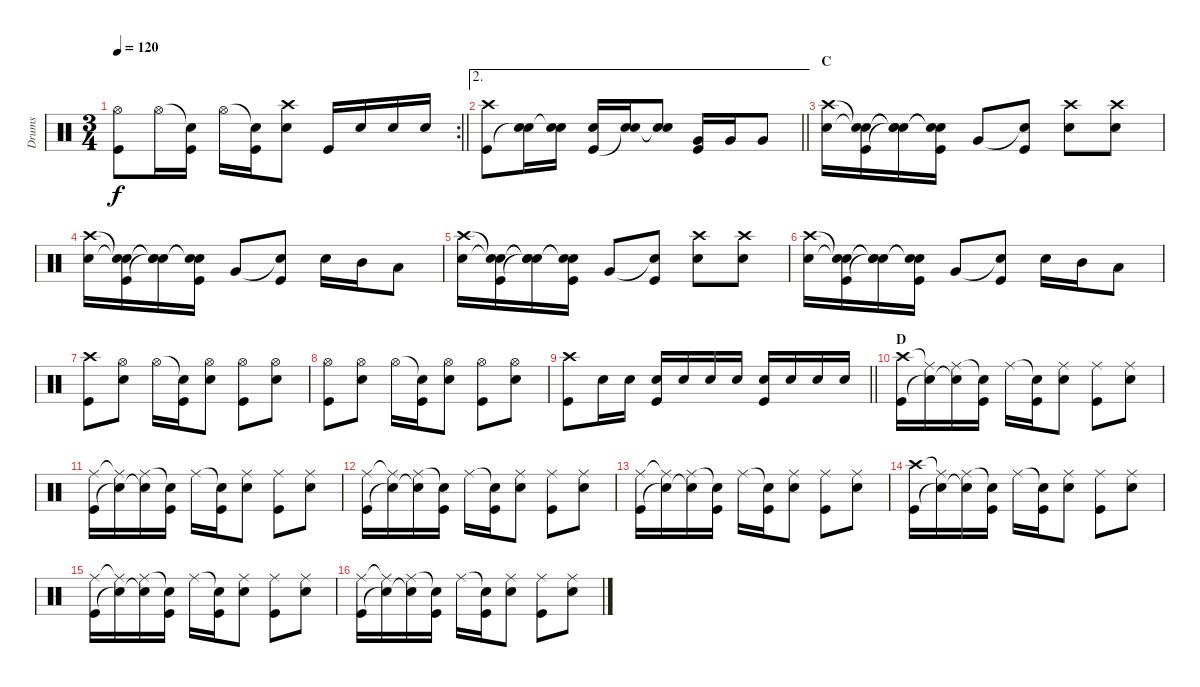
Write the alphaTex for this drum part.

\track ("Drums" "Drums") {instrument percussion}
\staff {score}
\articulation defaults
\rc 2
\ts (3 4)
\tempo 120
\clef neutral
\barLineRight lightlight
\ks c
("Hi-Hat (open)" "Kick (hit)").8{dy f} "Hi-Hat (open)".16 ("Snare (hit)"{t} "Kick (hit)").16 "Hi-Hat (open)".16 ("Snare (hit)"{t} "Kick (hit)").16 ("Crash high (hit)" "Snare (hit) 2").8 "Kick (hit)".16 "Snare (hit) 2".16 "Snare (hit) 2".16 "Snare (hit) 2".16 |
\ae 2
\barLineRight lightlight
("Crash high (hit)" "Kick (hit)").8 ("Snare (hit) 2" "Snare (hit)"{t}).16 ("Snare (hit) 2" "Snare (hit)"{t}).16 ("Snare (hit) 2" "Kick (hit)").16 ("Snare (hit) 2" "Snare (hit)"{t}).16 ("Snare (hit) 2" "Snare (hit)"{t}).8 ("Very Low Tom (hit)" "Kick (hit)").16 "Very Low Tom (hit)".16 "Very Low Tom (hit)".8 |
\section ("" "C")
("Crash high (hit)" "Snare (hit) 2").16 ("Snare (hit)"{t} "Snare (hit)"{t} "Kick (hit)").16 ("Snare (hit)"{t} "Snare (hit)"{t} "Snare (hit)"{t}).16 ("Snare (hit)"{t} "Snare (hit)"{t} "Kick (hit)").16 "Very Low Tom (hit)".8 ("Snare (hit)"{t} "Kick (hit)").8 ("Crash high (hit)" "Snare (hit) 2").8 ("Crash high (hit)" "Snare (hit) 2").8 |
("Crash high (hit)" "Snare (hit) 2").16 ("Snare (hit)"{t} "Snare (hit)"{t} "Kick (hit)").16 ("Snare (hit)"{t} "Snare (hit)"{t} "Snare (hit)"{t}).16 ("Snare (hit)"{t} "Snare (hit)"{t} "Kick (hit)").16 "Very Low Tom (hit)".8 ("Snare (hit)"{t} "Kick (hit)").8 "Snare (hit) 2".16 "Mid Tom (hit)".16 "Low Tom (hit)".8 |
("Crash high (hit)" "Snare (hit) 2").16 ("Snare (hit)"{t} "Snare (hit)"{t} "Kick (hit)").16 ("Snare (hit)"{t} "Snare (hit)"{t} "Snare (hit)"{t}).16 ("Snare (hit)"{t} "Snare (hit)"{t} "Kick (hit)").16 "Very Low Tom (hit)".8 ("Snare (hit)"{t} "Kick (hit)").8 ("Crash high (hit)" "Snare (hit) 2").8 ("Crash high (hit)" "Snare (hit) 2").8 |
("Crash high (hit)" "Snare (hit) 2").16 ("Snare (hit)"{t} "Snare (hit)"{t} "Kick (hit)").16 ("Snare (hit)"{t} "Snare (hit)"{t} "Snare (hit)"{t}).16 ("Snare (hit)"{t} "Snare (hit)"{t} "Kick (hit)").16 "Very Low Tom (hit)".8 ("Snare (hit)"{t} "Kick (hit)").8 "Snare (hit) 2".16 "Mid Tom (hit)".16 "Low Tom (hit)".8 |
("Crash high (hit)" "Kick (hit)").8 ("Hi-Hat (open)" "Snare (hit) 2").8 "Hi-Hat (open)".16 ("Snare (hit)"{t} "Kick (hit)").16 ("Hi-Hat (open)" "Snare (hit) 2").8 ("Hi-Hat (open)" "Kick (hit)").8 ("Hi-Hat (open)" "Snare (hit) 2").8 |
("Hi-Hat (open)" "Kick (hit)").8 ("Hi-Hat (open)" "Snare (hit) 2").8 "Hi-Hat (open)".16 ("Snare (hit)"{t} "Kick (hit)").16 ("Hi-Hat (open)" "Snare (hit) 2").8 ("Hi-Hat (open)" "Kick (hit)").8 ("Hi-Hat (open)" "Snare (hit) 2").8 |
\barLineRight lightlight
("Crash high (hit)" "Kick (hit)").8 "Snare (hit) 2".16 "Snare (hit) 2".16 ("Snare (hit) 2" "Kick (hit)").16 "Snare (hit) 2".16 "Snare (hit) 2".16 "Snare (hit) 2".16 ("Snare (hit) 2" "Kick (hit)").16 "Snare (hit) 2".16 "Snare (hit) 2".16 "Snare (hit) 2".16 |
\section ("" "D")
("Crash high (hit)" "Kick (hit)").16 ("Ride (middle)"{t} "Snare (hit)"{t}).16 ("Ride (middle)" "Snare (hit)"{t}).16 ("Snare (hit)"{t} "Kick (hit)").16 "Ride (middle)".16 ("Snare (hit)"{t} "Kick (hit)").16 ("Ride (middle)" "Snare (hit) 2").8 ("Ride (middle)" "Kick (hit)").8 ("Ride (middle)" "Snare (hit) 2").8 |
("Ride (middle)" "Kick (hit)").16 ("Ride (middle)"{t} "Snare (hit)"{t}).16 ("Ride (middle)" "Snare (hit)"{t}).16 ("Snare (hit)"{t} "Kick (hit)").16 "Ride (middle)".16 ("Snare (hit)"{t} "Kick (hit)").16 ("Ride (middle)" "Snare (hit) 2").8 ("Ride (middle)" "Kick (hit)").8 ("Ride (middle)" "Snare (hit) 2").8 |
("Ride (middle)" "Kick (hit)").16 ("Ride (middle)"{t} "Snare (hit)"{t}).16 ("Ride (middle)" "Snare (hit)"{t}).16 ("Snare (hit)"{t} "Kick (hit)").16 "Ride (middle)".16 ("Snare (hit)"{t} "Kick (hit)").16 ("Ride (middle)" "Snare (hit) 2").8 ("Ride (middle)" "Kick (hit)").8 ("Ride (middle)" "Snare (hit) 2").8 |
("Ride (middle)" "Kick (hit)").16 ("Ride (middle)"{t} "Snare (hit)"{t}).16 ("Ride (middle)" "Snare (hit)"{t}).16 ("Snare (hit)"{t} "Kick (hit)").16 "Ride (middle)".16 ("Snare (hit)"{t} "Kick (hit)").16 ("Ride (middle)" "Snare (hit) 2").8 ("Ride (middle)" "Kick (hit)").8 ("Ride (middle)" "Snare (hit) 2").8 |
("Crash high (hit)" "Kick (hit)").16 ("Ride (middle)"{t} "Snare (hit)"{t}).16 ("Ride (middle)" "Snare (hit)"{t}).16 ("Snare (hit)"{t} "Kick (hit)").16 "Ride (middle)".16 ("Snare (hit)"{t} "Kick (hit)").16 ("Ride (middle)" "Snare (hit) 2").8 ("Ride (middle)" "Kick (hit)").8 ("Ride (middle)" "Snare (hit) 2").8 |
("Ride (middle)" "Kick (hit)").16 ("Ride (middle)"{t} "Snare (hit)"{t}).16 ("Ride (middle)" "Snare (hit)"{t}).16 ("Snare (hit)"{t} "Kick (hit)").16 "Ride (middle)".16 ("Snare (hit)"{t} "Kick (hit)").16 ("Ride (middle)" "Snare (hit) 2").8 ("Ride (middle)" "Kick (hit)").8 ("Ride (middle)" "Snare (hit) 2").8 |
("Ride (middle)" "Kick (hit)").16 ("Ride (middle)"{t} "Snare (hit)"{t}).16 ("Ride (middle)" "Snare (hit)"{t}).16 ("Snare (hit)"{t} "Kick (hit)").16 "Ride (middle)".16 ("Snare (hit)"{t} "Kick (hit)").16 ("Ride (middle)" "Snare (hit) 2").8 ("Ride (middle)" "Kick (hit)").8 ("Ride (middle)" "Snare (hit) 2").8
